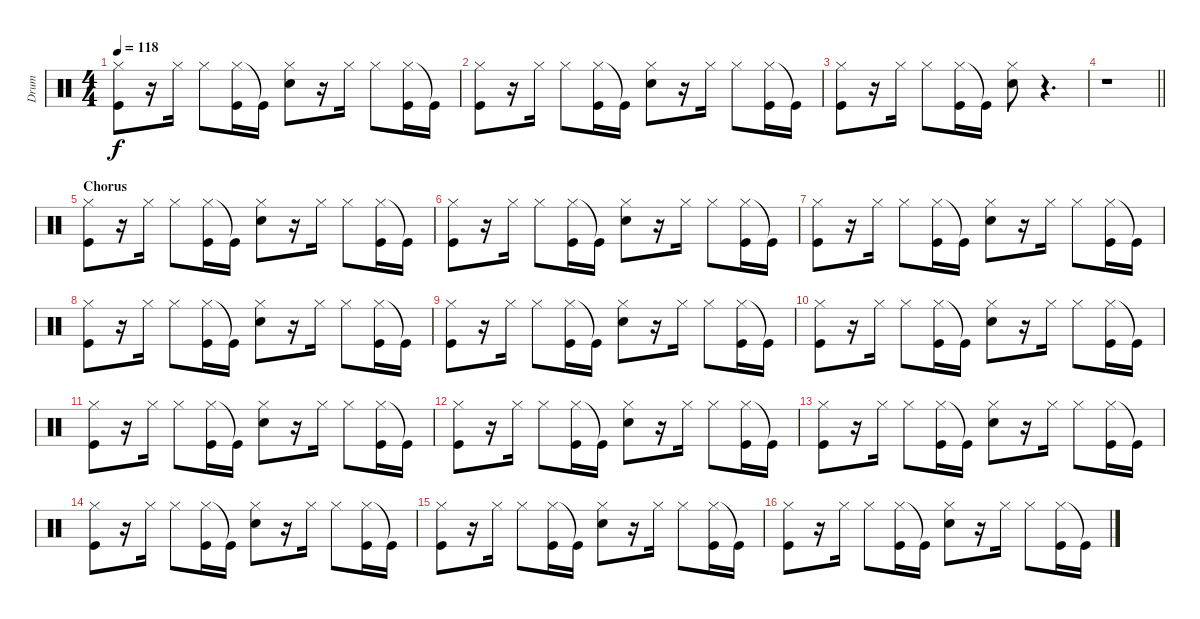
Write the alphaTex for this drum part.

\track ("Drum" "Drum") {instrument percussion}
\staff {score}
\articulation defaults
\ts (4 4)
\tempo 118
\clef neutral
\ks c
("Hi-Hat (closed)" "Kick (hit)").8{dy f} r.16 "Hi-Hat (closed)".16 "Hi-Hat (closed)".8 ("Hi-Hat (closed)" "Kick (hit)").16 "Kick (hit)"{t}.16 ("Hi-Hat (closed)" "Hand Clap (hit)").8 r.16 "Hi-Hat (closed)".16 "Hi-Hat (closed)".8 ("Hi-Hat (closed)" "Kick (hit)").16 "Kick (hit)"{t}.16 |
("Hi-Hat (closed)" "Kick (hit)").8 r.16 "Hi-Hat (closed)".16 "Hi-Hat (closed)".8 ("Hi-Hat (closed)" "Kick (hit)").16 "Kick (hit)"{t}.16 ("Hi-Hat (closed)" "Hand Clap (hit)").8 r.16 "Hi-Hat (closed)".16 "Hi-Hat (closed)".8 ("Hi-Hat (closed)" "Kick (hit)").16 "Kick (hit)"{t}.16 |
("Kick (hit)" "Hi-Hat (closed)").8 r.16 "Hi-Hat (closed)".16 "Hi-Hat (closed)".8 ("Hi-Hat (closed)" "Kick (hit)").16 "Kick (hit)"{t}.16 ("Hi-Hat (closed)" "Hand Clap (hit)").8 r.4{d} |
\barLineRight lightlight
r.1 |
\section ("" "Chorus")
("Kick (hit)" "Hi-Hat (closed)").8 r.16 "Hi-Hat (closed)".16 "Hi-Hat (closed)".8 ("Hi-Hat (closed)" "Kick (hit)").16 "Kick (hit)"{t}.16 ("Hi-Hat (closed)" "Hand Clap (hit)").8 r.16 "Hi-Hat (closed)".16 "Hi-Hat (closed)".8 ("Hi-Hat (closed)" "Kick (hit)").16 "Kick (hit)"{t}.16 |
("Hi-Hat (closed)" "Kick (hit)").8 r.16 "Hi-Hat (closed)".16 "Hi-Hat (closed)".8 ("Hi-Hat (closed)" "Kick (hit)").16 "Kick (hit)"{t}.16 ("Hi-Hat (closed)" "Hand Clap (hit)").8 r.16 "Hi-Hat (closed)".16 "Hi-Hat (closed)".8 ("Hi-Hat (closed)" "Kick (hit)").16 "Kick (hit)"{t}.16 |
("Kick (hit)" "Hi-Hat (closed)").8 r.16 "Hi-Hat (closed)".16 "Hi-Hat (closed)".8 ("Hi-Hat (closed)" "Kick (hit)").16 "Kick (hit)"{t}.16 ("Hi-Hat (closed)" "Hand Clap (hit)").8 r.16 "Hi-Hat (closed)".16 "Hi-Hat (closed)".8 ("Hi-Hat (closed)" "Kick (hit)").16 "Kick (hit)"{t}.16 |
("Kick (hit)" "Hi-Hat (closed)").8 r.16 "Hi-Hat (closed)".16 "Hi-Hat (closed)".8 ("Hi-Hat (closed)" "Kick (hit)").16 "Kick (hit)"{t}.16 ("Hi-Hat (closed)" "Hand Clap (hit)").8 r.16 "Hi-Hat (closed)".16 "Hi-Hat (closed)".8 ("Hi-Hat (closed)" "Kick (hit)").16 "Kick (hit)"{t}.16 |
("Hi-Hat (closed)" "Kick (hit)").8 r.16 "Hi-Hat (closed)".16 "Hi-Hat (closed)".8 ("Hi-Hat (closed)" "Kick (hit)").16 "Kick (hit)"{t}.16 ("Hi-Hat (closed)" "Hand Clap (hit)").8 r.16 "Hi-Hat (closed)".16 "Hi-Hat (closed)".8 ("Hi-Hat (closed)" "Kick (hit)").16 "Kick (hit)"{t}.16 |
("Kick (hit)" "Hi-Hat (closed)").8 r.16 "Hi-Hat (closed)".16 "Hi-Hat (closed)".8 ("Hi-Hat (closed)" "Kick (hit)").16 "Kick (hit)"{t}.16 ("Hi-Hat (closed)" "Hand Clap (hit)").8 r.16 "Hi-Hat (closed)".16 "Hi-Hat (closed)".8 ("Hi-Hat (closed)" "Kick (hit)").16 "Kick (hit)"{t}.16 |
("Hi-Hat (closed)" "Kick (hit)").8 r.16 "Hi-Hat (closed)".16 "Hi-Hat (closed)".8 ("Hi-Hat (closed)" "Kick (hit)").16 "Kick (hit)"{t}.16 ("Hi-Hat (closed)" "Hand Clap (hit)").8 r.16 "Hi-Hat (closed)".16 "Hi-Hat (closed)".8 ("Hi-Hat (closed)" "Kick (hit)").16 "Kick (hit)"{t}.16 |
("Kick (hit)" "Hi-Hat (closed)").8 r.16 "Hi-Hat (closed)".16 "Hi-Hat (closed)".8 ("Hi-Hat (closed)" "Kick (hit)").16 "Kick (hit)"{t}.16 ("Hi-Hat (closed)" "Hand Clap (hit)").8 r.16 "Hi-Hat (closed)".16 "Hi-Hat (closed)".8 ("Hi-Hat (closed)" "Kick (hit)").16 "Kick (hit)"{t}.16 |
("Hi-Hat (closed)" "Kick (hit)").8 r.16 "Hi-Hat (closed)".16 "Hi-Hat (closed)".8 ("Hi-Hat (closed)" "Kick (hit)").16 "Kick (hit)"{t}.16 ("Hi-Hat (closed)" "Hand Clap (hit)").8 r.16 "Hi-Hat (closed)".16 "Hi-Hat (closed)".8 ("Hi-Hat (closed)" "Kick (hit)").16 "Kick (hit)"{t}.16 |
("Kick (hit)" "Hi-Hat (closed)").8 r.16 "Hi-Hat (closed)".16 "Hi-Hat (closed)".8 ("Hi-Hat (closed)" "Kick (hit)").16 "Kick (hit)"{t}.16 ("Hi-Hat (closed)" "Hand Clap (hit)").8 r.16 "Hi-Hat (closed)".16 "Hi-Hat (closed)".8 ("Hi-Hat (closed)" "Kick (hit)").16 "Kick (hit)"{t}.16 |
("Hi-Hat (closed)" "Kick (hit)").8 r.16 "Hi-Hat (closed)".16 "Hi-Hat (closed)".8 ("Hi-Hat (closed)" "Kick (hit)").16 "Kick (hit)"{t}.16 ("Hi-Hat (closed)" "Hand Clap (hit)").8 r.16 "Hi-Hat (closed)".16 "Hi-Hat (closed)".8 ("Hi-Hat (closed)" "Kick (hit)").16 "Kick (hit)"{t}.16 |
("Kick (hit)" "Hi-Hat (closed)").8 r.16 "Hi-Hat (closed)".16 "Hi-Hat (closed)".8 ("Hi-Hat (closed)" "Kick (hit)").16 "Kick (hit)"{t}.16 ("Hi-Hat (closed)" "Hand Clap (hit)").8 r.16 "Hi-Hat (closed)".16 "Hi-Hat (closed)".8 ("Hi-Hat (closed)" "Kick (hit)").16 "Kick (hit)"{t}.16
